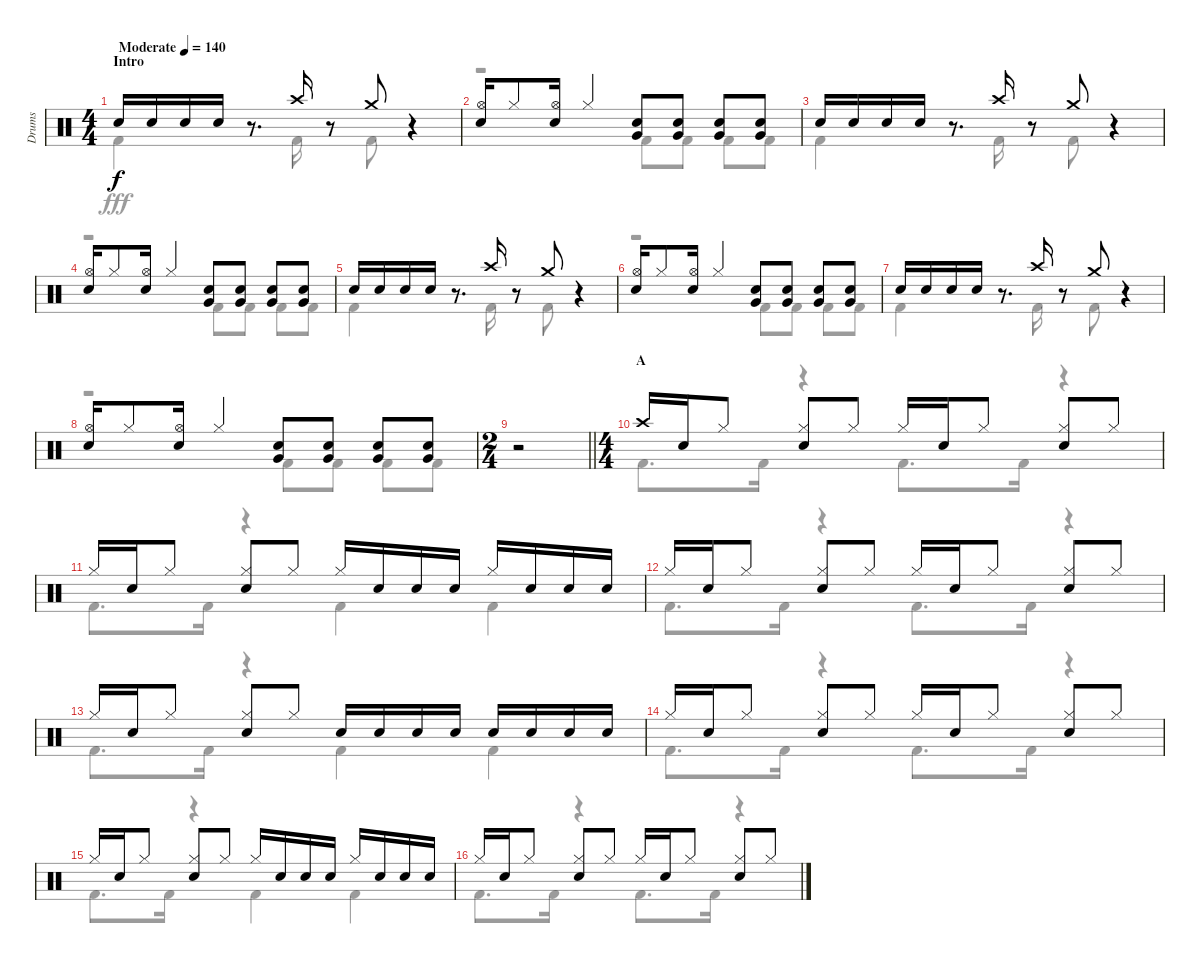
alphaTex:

\track ("Drums" "Drums") {instrument percussion}
\staff {score}
\articulation defaults
\voice
\ts (4 4)
\section ("" "Intro")
\tempo (140 "Moderate")
\clef neutral
\ks c "Snare (hit) 2".16{dy f} "Snare (hit) 2".16 "Snare (hit) 2".16 "Snare (hit) 2".16
r.8{d} "Crash high (hit)".16 r.8 "Crash medium (hit)".8 r.4 |
("Hi-Hat (open)" "Snare (hit) 2").16 "Hi-Hat (closed)".8 ("Hi-Hat (open)" "Snare (hit) 2").16 "Hi-Hat (closed)".4 ("Snare (hit) 2" "Very Low Tom (hit)").8 ("Snare (hit) 2" "Very Low Tom (hit)").8 ("Snare (hit) 2" "Very Low Tom (hit)").8 ("Snare (hit) 2" "Very Low Tom (hit)").8 |
"Snare (hit) 2".16 "Snare (hit) 2".16 "Snare (hit) 2".16 "Snare (hit) 2".16 r.8{d} "Crash high (hit)".16 r.8 "Crash medium (hit)".8 r.4 |
("Hi-Hat (open)" "Snare (hit) 2").16 "Hi-Hat (closed)".8 ("Hi-Hat (open)" "Snare (hit) 2").16 "Hi-Hat (closed)".4 ("Snare (hit) 2" "Very Low Tom (hit)").8 ("Snare (hit) 2" "Very Low Tom (hit)").8 ("Snare (hit) 2" "Very Low Tom (hit)").8 ("Snare (hit) 2" "Very Low Tom (hit)").8 |
"Snare (hit) 2".16 "Snare (hit) 2".16 "Snare (hit) 2".16 "Snare (hit) 2".16 r.8{d} "Crash high (hit)".16 r.8 "Crash medium (hit)".8 r.4 |
("Hi-Hat (open)" "Snare (hit) 2").16 "Hi-Hat (closed)".8 ("Hi-Hat (open)" "Snare (hit) 2").16 "Hi-Hat (closed)".4 ("Snare (hit) 2" "Very Low Tom (hit)").8 ("Snare (hit) 2" "Very Low Tom (hit)").8 ("Snare (hit) 2" "Very Low Tom (hit)").8 ("Snare (hit) 2" "Very Low Tom (hit)").8 |
"Snare (hit) 2".16 "Snare (hit) 2".16 "Snare (hit) 2".16 "Snare (hit) 2".16 r.8{d} "Crash high (hit)".16 r.8 "Crash medium (hit)".8 r.4 |
("Hi-Hat (open)" "Snare (hit) 2").16 "Hi-Hat (closed)".8 ("Hi-Hat (open)" "Snare (hit) 2").16 "Hi-Hat (closed)".4 ("Snare (hit) 2" "Very Low Tom (hit)").8 ("Snare (hit) 2" "Very Low Tom (hit)").8 ("Snare (hit) 2" "Very Low Tom (hit)").8 ("Snare (hit) 2" "Very Low Tom (hit)").8 |
\ts (2 4)
\barLineRight lightlight
r.2 |
\ts (4 4)
\section ("" "A")
"Crash high (hit)".16 "Snare (hit) 2".16 "Hi-Hat (closed)".8 ("Hi-Hat (closed)" "Snare (hit) 2").8 "Hi-Hat (closed)".8 "Hi-Hat (closed)".16 "Snare (hit) 2".16 "Hi-Hat (closed)".8 ("Hi-Hat (closed)" "Snare (hit) 2").8 "Hi-Hat (closed)".8 |
"Hi-Hat (closed)".16 "Snare (hit) 2".16 "Hi-Hat (closed)".8 ("Hi-Hat (closed)" "Snare (hit) 2").8 "Hi-Hat (closed)".8 "Hi-Hat (closed)".16 "Snare (hit) 2".16 "Snare (hit) 2".16 "Snare (hit) 2".16 "Hi-Hat (closed)".16 "Snare (hit) 2".16 "Snare (hit) 2".16 "Snare (hit) 2".16 |
"Hi-Hat (closed)".16 "Snare (hit) 2".16 "Hi-Hat (closed)".8 ("Hi-Hat (closed)" "Snare (hit) 2").8 "Hi-Hat (closed)".8 "Hi-Hat (closed)".16 "Snare (hit) 2".16 "Hi-Hat (closed)".8 ("Hi-Hat (closed)" "Snare (hit) 2").8 "Hi-Hat (closed)".8 |
"Hi-Hat (closed)".16 "Snare (hit) 2".16 "Hi-Hat (closed)".8 ("Hi-Hat (closed)" "Snare (hit) 2").8 "Hi-Hat (closed)".8 "Snare (hit) 2".16 "Snare (hit) 2".16 "Snare (hit) 2".16 "Snare (hit) 2".16 "Snare (hit) 2".16 "Snare (hit) 2".16 "Snare (hit) 2".16 "Snare (hit) 2".16 |
"Hi-Hat (closed)".16 "Snare (hit) 2".16 "Hi-Hat (closed)".8 ("Hi-Hat (closed)" "Snare (hit) 2").8 "Hi-Hat (closed)".8 "Hi-Hat (closed)".16 "Snare (hit) 2".16 "Hi-Hat (closed)".8 ("Hi-Hat (closed)" "Snare (hit) 2").8 "Hi-Hat (closed)".8 |
"Hi-Hat (closed)".16 "Snare (hit) 2".16 "Hi-Hat (closed)".8 ("Hi-Hat (closed)" "Snare (hit) 2").8 "Hi-Hat (closed)".8 "Hi-Hat (closed)".16 "Snare (hit) 2".16 "Snare (hit) 2".16 "Snare (hit) 2".16 "Hi-Hat (closed)".16 "Snare (hit) 2".16 "Snare (hit) 2".16 "Snare (hit) 2".16 |
"Hi-Hat (closed)".16 "Snare (hit) 2".16 "Hi-Hat (closed)".8 ("Hi-Hat (closed)" "Snare (hit) 2").8 "Hi-Hat (closed)".8 "Hi-Hat (closed)".16 "Snare (hit) 2".16 "Hi-Hat (closed)".8 ("Hi-Hat (closed)" "Snare (hit) 2").8 "Hi-Hat (closed)".8
\voice
\clef neutral
\ottava regular
\simile none
\ks c "Kick (hit) 2".4{dy fff}
r.8{d} "Kick (hit) 2".16 r.8 "Kick (hit) 2".8 r.4 |
r.2 "Kick (hit) 2".8 "Kick (hit) 2".8 "Kick (hit) 2".8 "Kick (hit) 2".8 |
"Kick (hit) 2".4 r.8{d} "Kick (hit) 2".16 r.8 "Kick (hit) 2".8 r.4 |
r.2 "Kick (hit) 2".8 "Kick (hit) 2".8 "Kick (hit) 2".8 "Kick (hit) 2".8 |
"Kick (hit) 2".4 r.8{d} "Kick (hit) 2".16 r.8 "Kick (hit) 2".8 r.4 |
r.2 "Kick (hit) 2".8 "Kick (hit) 2".8 "Kick (hit) 2".8 "Kick (hit) 2".8 |
"Kick (hit) 2".4 r.8{d} "Kick (hit) 2".16 r.8 "Kick (hit) 2".8 r.4 |
r.2 "Kick (hit) 2".8 "Kick (hit) 2".8 "Kick (hit) 2".8 "Kick (hit) 2".8 |
\barLineRight lightlight
r.2 |
"Kick (hit) 2".8{d} "Kick (hit) 2".16 r.4 "Kick (hit) 2".8{d} "Kick (hit) 2".16 r.4 |
"Kick (hit) 2".8{d} "Kick (hit) 2".16 r.4 "Kick (hit) 2".4 "Kick (hit) 2".4 |
"Kick (hit) 2".8{d} "Kick (hit) 2".16 r.4 "Kick (hit) 2".8{d} "Kick (hit) 2".16 r.4 |
"Kick (hit) 2".8{d} "Kick (hit) 2".16 r.4 "Kick (hit) 2".4 "Kick (hit) 2".4 |
"Kick (hit) 2".8{d} "Kick (hit) 2".16 r.4 "Kick (hit) 2".8{d} "Kick (hit) 2".16 r.4 |
"Kick (hit) 2".8{d} "Kick (hit) 2".16 r.4 "Kick (hit) 2".4 "Kick (hit) 2".4 |
"Kick (hit) 2".8{d} "Kick (hit) 2".16 r.4 "Kick (hit) 2".8{d} "Kick (hit) 2".16 r.4
